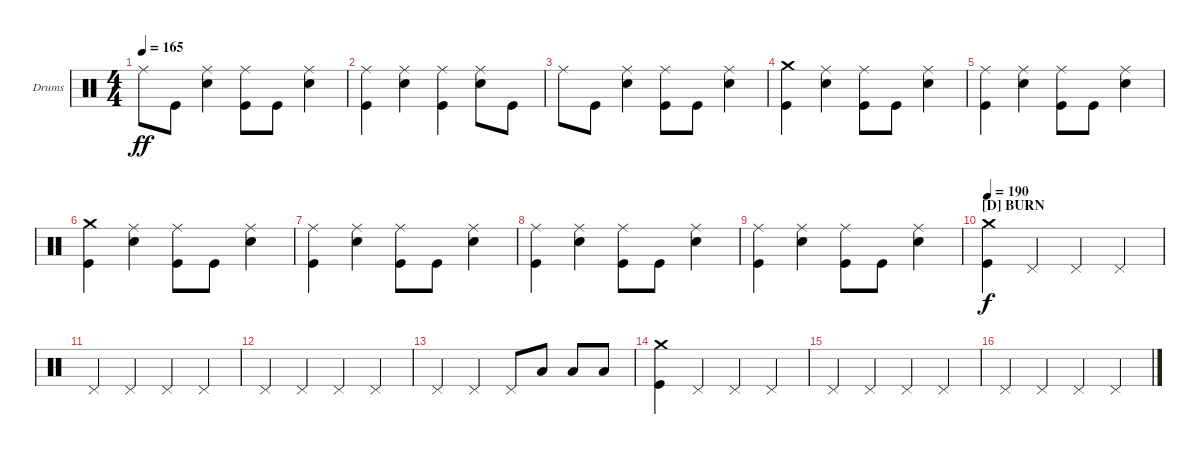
\bracketExtendMode groupsimilarinstruments
\firstSystemTrackNameOrientation horizontal
\otherSystemsTrackNameOrientation horizontal
\track ("Drumkit" "Drums") {instrument percussion}
\staff {score}
\articulation defaults
\ts (4 4)
\tempo 165
\clef neutral
\ks c "Ride (middle)".8{dy ff} "Kick (hit)".8
("Ride (middle)" "Snare (hit) 2").4 ("Ride (middle)" "Kick (hit)").8 "Kick (hit)".8 ("Snare (hit) 2" "Ride (middle)").4 |
("Kick (hit)" "Ride (middle)").4 ("Ride (middle)" "Snare (hit) 2").4 ("Ride (middle)" "Kick (hit)").4 ("Ride (middle)" "Snare (hit) 2").8 "Kick (hit)".8 |
"Ride (middle)".8 "Kick (hit)".8 ("Snare (hit) 2" "Ride (middle)").4 ("Kick (hit)" "Ride (middle)").8 "Kick (hit)".8 ("Ride (middle)" "Snare (hit) 2").4 |
("Crash medium (hit)" "Kick (hit)").4 ("Ride (middle)" "Snare (hit) 2").4 ("Kick (hit)" "Ride (middle)").8 "Kick (hit)".8 ("Snare (hit) 2" "Ride (middle)").4 |
("Kick (hit)" "Ride (middle)").4 ("Ride (middle)" "Snare (hit) 2").4 ("Ride (middle)" "Kick (hit)").8 "Kick (hit)".8 ("Snare (hit) 2" "Ride (middle)").4 |
("Crash medium (hit)" "Kick (hit)").4 ("Ride (middle)" "Snare (hit) 2").4 ("Kick (hit)" "Ride (middle)").8 "Kick (hit)".8 ("Snare (hit) 2" "Ride (middle)").4 |
("Ride (middle)" "Kick (hit)").4 ("Snare (hit) 2" "Ride (middle)").4 ("Kick (hit)" "Ride (middle)").8 "Kick (hit)".8 ("Ride (middle)" "Snare (hit) 2").4 |
("Ride (middle)" "Kick (hit)").4 ("Snare (hit) 2" "Ride (middle)").4 ("Kick (hit)" "Ride (middle)").8 "Kick (hit)".8 ("Ride (middle)" "Snare (hit) 2").4 |
("Ride (middle)" "Kick (hit)").4 ("Snare (hit) 2" "Ride (middle)").4 ("Kick (hit)" "Ride (middle)").8 "Kick (hit)".8 ("Ride (middle)" "Snare (hit) 2").4 |
\section ("D" "BURN")
\tempo 190
("Kick (hit)" "Crash medium (hit)").4{dy f} "Pedal Hi-Hat (hit)".4 "Pedal Hi-Hat (hit)".4 "Pedal Hi-Hat (hit)".4 |
"Pedal Hi-Hat (hit)".4 "Pedal Hi-Hat (hit)".4 "Pedal Hi-Hat (hit)".4 "Pedal Hi-Hat (hit)".4 |
"Pedal Hi-Hat (hit)".4 "Pedal Hi-Hat (hit)".4 "Pedal Hi-Hat (hit)".4 "Pedal Hi-Hat (hit)".4 |
"Pedal Hi-Hat (hit)".4 "Pedal Hi-Hat (hit)".4 "Pedal Hi-Hat (hit)".8 "Low Tom (hit)".8 "Low Tom (hit)".8 "Low Tom (hit)".8 |
("Kick (hit)" "Crash medium (hit)").4 "Pedal Hi-Hat (hit)".4 "Pedal Hi-Hat (hit)".4 "Pedal Hi-Hat (hit)".4 |
"Pedal Hi-Hat (hit)".4 "Pedal Hi-Hat (hit)".4 "Pedal Hi-Hat (hit)".4 "Pedal Hi-Hat (hit)".4 |
"Pedal Hi-Hat (hit)".4 "Pedal Hi-Hat (hit)".4 "Pedal Hi-Hat (hit)".4 "Pedal Hi-Hat (hit)".4
